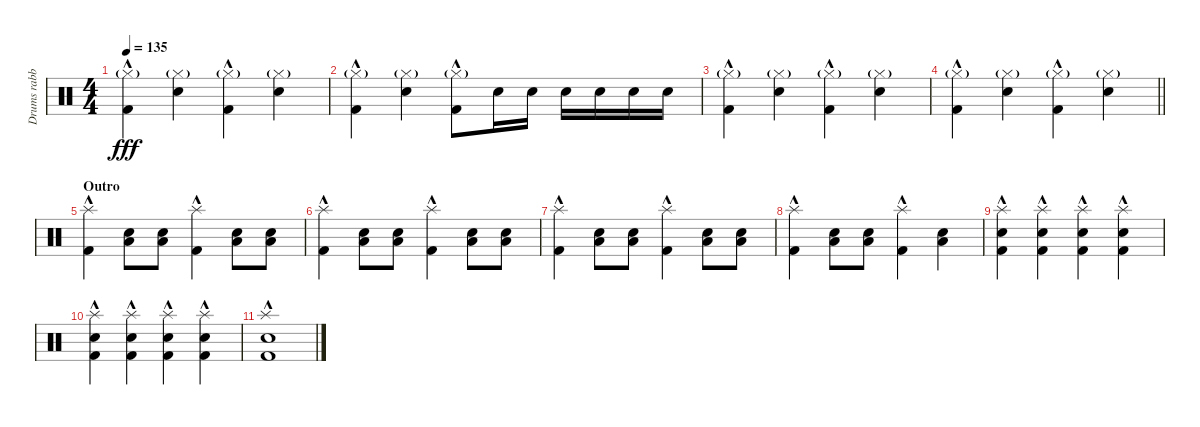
\track ("Drums rabbit" "Drums rabb") {instrument percussion}
\staff {score}
\articulation defaults
\ts (4 4)
\tempo 135
\clef neutral
\ks c
("Kick (hit) 2"{hac} "Hi-Hat (closed)"{g}).4{dy fff} ("Electric Snare (hit)" "Hi-Hat (closed)"{g}).4 ("Kick (hit) 2"{hac} "Hi-Hat (closed)"{g}).4 ("Electric Snare (hit)" "Hi-Hat (closed)"{g}).4 |
("Kick (hit) 2"{hac} "Hi-Hat (closed)"{g}).4 ("Electric Snare (hit)" "Hi-Hat (closed)"{g}).4 ("Kick (hit) 2"{hac} "Hi-Hat (closed)"{g}).8 "Electric Snare (hit)".16 "Electric Snare (hit)".16 "Electric Snare (hit)".16 "Electric Snare (hit)".16 "Electric Snare (hit)".16 "Electric Snare (hit)".16 |
("Kick (hit) 2"{hac} "Hi-Hat (closed)"{g}).4 ("Electric Snare (hit)" "Hi-Hat (closed)"{g}).4 ("Kick (hit) 2"{hac} "Hi-Hat (closed)"{g}).4 ("Electric Snare (hit)" "Hi-Hat (closed)"{g}).4 |
\barLineRight lightlight
("Kick (hit) 2"{hac} "Hi-Hat (closed)"{g}).4 ("Electric Snare (hit)" "Hi-Hat (closed)"{g}).4 ("Kick (hit) 2"{hac} "Hi-Hat (closed)"{g}).4 ("Electric Snare (hit)" "Hi-Hat (closed)"{g}).4 |
\section ("" "Outro")
("Kick (hit) 2"{hac} "Splash (hit)").4 ("Electric Snare (hit)" "Low Floor Tom (hit)").8 ("Electric Snare (hit)" "Low Floor Tom (hit)").8 ("Kick (hit) 2"{hac} "Splash (hit)").4 ("Electric Snare (hit)" "Low Floor Tom (hit)").8 ("Electric Snare (hit)" "Low Floor Tom (hit)").8 |
("Kick (hit) 2"{hac} "Splash (hit)").4 ("Electric Snare (hit)" "Low Floor Tom (hit)").8 ("Electric Snare (hit)" "Low Floor Tom (hit)").8 ("Kick (hit) 2"{hac} "Splash (hit)").4 ("Electric Snare (hit)" "Low Floor Tom (hit)").8 ("Electric Snare (hit)" "Low Floor Tom (hit)").8 |
("Kick (hit) 2"{hac} "Splash (hit)").4 ("Electric Snare (hit)" "Low Floor Tom (hit)").8 ("Electric Snare (hit)" "Low Floor Tom (hit)").8 ("Kick (hit) 2"{hac} "Splash (hit)").4 ("Electric Snare (hit)" "Low Floor Tom (hit)").8 ("Electric Snare (hit)" "Low Floor Tom (hit)").8 |
("Kick (hit) 2"{hac} "Splash (hit)").4 ("Electric Snare (hit)" "Low Floor Tom (hit)").8 ("Electric Snare (hit)" "Low Floor Tom (hit)").8 ("Kick (hit) 2"{hac} "Splash (hit)").4 ("Electric Snare (hit)" "Low Floor Tom (hit)").4 |
("Electric Snare (hit)" "Kick (hit) 2"{hac} "Splash (hit)").4 ("Electric Snare (hit)" "Kick (hit) 2"{hac} "Splash (hit)").4 ("Electric Snare (hit)" "Kick (hit) 2"{hac} "Splash (hit)").4 ("Electric Snare (hit)" "Kick (hit) 2"{hac} "Splash (hit)").4 |
("Electric Snare (hit)" "Kick (hit) 2"{hac} "Splash (hit)").4 ("Electric Snare (hit)" "Kick (hit) 2"{hac} "Splash (hit)").4 ("Electric Snare (hit)" "Kick (hit) 2"{hac} "Splash (hit)").4 ("Electric Snare (hit)" "Kick (hit) 2"{hac} "Splash (hit)").4 |
("Electric Snare (hit)" "Kick (hit) 2"{hac} "Splash (hit)").1
